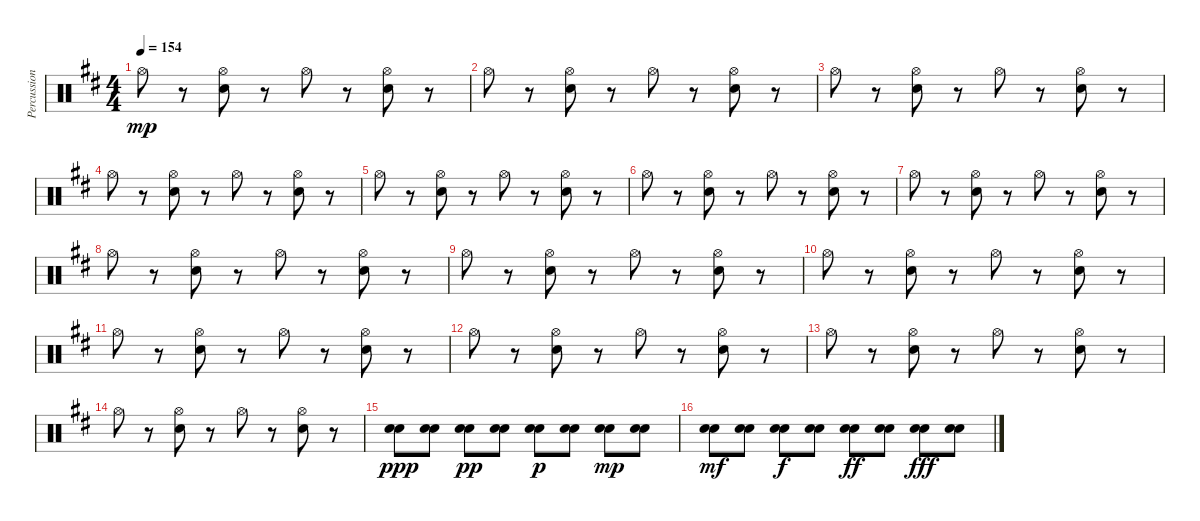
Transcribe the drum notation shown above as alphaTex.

\track ("Percussion (Mike Felumlee" "Percussion") {instrument percussion}
\staff {score}
\articulation defaults
\ts (4 4)
\tempo 154
\clef neutral
\ks bminor "Hi-Hat (open)".8{dy mp}
r.8 ("Hi-Hat (open)" "Electric Snare (hit)").8 r.8 "Hi-Hat (open)".8 r.8 ("Hi-Hat (open)" "Electric Snare (hit)").8 r.8 |
"Hi-Hat (open)".8 r.8 ("Hi-Hat (open)" "Electric Snare (hit)").8 r.8 "Hi-Hat (open)".8 r.8 ("Hi-Hat (open)" "Electric Snare (hit)").8 r.8 |
"Hi-Hat (open)".8 r.8 ("Hi-Hat (open)" "Electric Snare (hit)").8 r.8 "Hi-Hat (open)".8 r.8 ("Hi-Hat (open)" "Electric Snare (hit)").8 r.8 |
"Hi-Hat (open)".8 r.8 ("Hi-Hat (open)" "Electric Snare (hit)").8 r.8 "Hi-Hat (open)".8 r.8 ("Hi-Hat (open)" "Electric Snare (hit)").8 r.8 |
"Hi-Hat (open)".8 r.8 ("Hi-Hat (open)" "Electric Snare (hit)").8 r.8 "Hi-Hat (open)".8 r.8 ("Hi-Hat (open)" "Electric Snare (hit)").8 r.8 |
"Hi-Hat (open)".8 r.8 ("Hi-Hat (open)" "Electric Snare (hit)").8 r.8 "Hi-Hat (open)".8 r.8 ("Hi-Hat (open)" "Electric Snare (hit)").8 r.8 |
"Hi-Hat (open)".8 r.8 ("Hi-Hat (open)" "Electric Snare (hit)").8 r.8 "Hi-Hat (open)".8 r.8 ("Hi-Hat (open)" "Electric Snare (hit)").8 r.8 |
"Hi-Hat (open)".8 r.8 ("Hi-Hat (open)" "Electric Snare (hit)").8 r.8 "Hi-Hat (open)".8 r.8 ("Hi-Hat (open)" "Electric Snare (hit)").8 r.8 |
"Hi-Hat (open)".8 r.8 ("Hi-Hat (open)" "Electric Snare (hit)").8 r.8 "Hi-Hat (open)".8 r.8 ("Hi-Hat (open)" "Electric Snare (hit)").8 r.8 |
"Hi-Hat (open)".8 r.8 ("Hi-Hat (open)" "Electric Snare (hit)").8 r.8 "Hi-Hat (open)".8 r.8 ("Hi-Hat (open)" "Electric Snare (hit)").8 r.8 |
"Hi-Hat (open)".8 r.8 ("Hi-Hat (open)" "Electric Snare (hit)").8 r.8 "Hi-Hat (open)".8 r.8 ("Hi-Hat (open)" "Electric Snare (hit)").8 r.8 |
"Hi-Hat (open)".8 r.8 ("Hi-Hat (open)" "Electric Snare (hit)").8 r.8 "Hi-Hat (open)".8 r.8 ("Hi-Hat (open)" "Electric Snare (hit)").8 r.8 |
"Hi-Hat (open)".8 r.8 ("Hi-Hat (open)" "Electric Snare (hit)").8 r.8 "Hi-Hat (open)".8 r.8 ("Hi-Hat (open)" "Electric Snare (hit)").8 r.8 |
"Hi-Hat (open)".8 r.8 ("Hi-Hat (open)" "Electric Snare (hit)").8 r.8 "Hi-Hat (open)".8 r.8 ("Hi-Hat (open)" "Electric Snare (hit)").8 r.8 |
("Snare (hit) 2" "Electric Snare (hit)").8{dy ppp} ("Snare (hit) 2" "Electric Snare (hit)").8 ("Snare (hit) 2" "Electric Snare (hit)").8{dy pp} ("Snare (hit) 2" "Electric Snare (hit)").8 ("Snare (hit) 2" "Electric Snare (hit)").8{dy p} ("Snare (hit) 2" "Electric Snare (hit)").8 ("Snare (hit) 2" "Electric Snare (hit)").8{dy mp} ("Snare (hit) 2" "Electric Snare (hit)").8 |
("Snare (hit) 2" "Electric Snare (hit)").8{dy mf} ("Snare (hit) 2" "Electric Snare (hit)").8 ("Snare (hit) 2" "Electric Snare (hit)").8{dy f} ("Snare (hit) 2" "Electric Snare (hit)").8 ("Snare (hit) 2" "Electric Snare (hit)").8{dy ff} ("Snare (hit) 2" "Electric Snare (hit)").8 ("Snare (hit) 2" "Electric Snare (hit)").8{dy fff} ("Snare (hit) 2" "Electric Snare (hit)").8
